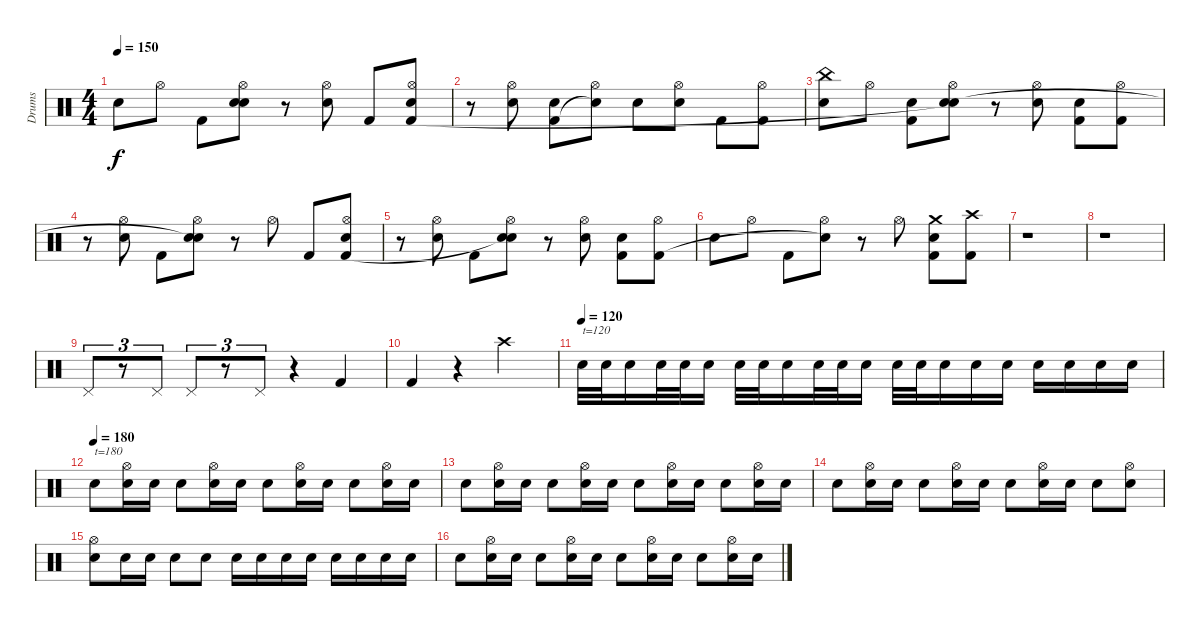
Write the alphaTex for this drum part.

\track ("Drums" "Drums") {instrument percussion}
\staff {score}
\articulation defaults
\ts (4 4)
\tempo 150
\clef neutral
\ks c "Snare (hit) 2".8{dy f} "Hi-Hat (open)".8 "Kick (hit) 2".8
("Hi-Hat (open)" "Snare (hit) 2" "Snare (hit)"{t}).8 r.8 ("Hi-Hat (open)" "Snare (hit) 2").8 "Kick (hit) 2".8 ("Hi-Hat (open)" "Snare (hit) 2" "Kick (hit) 2").8 |
r.8 ("Hi-Hat (open)" "Snare (hit) 2").8 ("Snare (hit) 2" "Kick (hit) 2").8 ("Hi-Hat (open)" "Snare (hit)"{t}).8 "Snare (hit) 2".8 ("Hi-Hat (open)" "Snare (hit) 2").8 "Kick (hit) 2".8 ("Hi-Hat (open)" "Kick (hit) 2").8 |
("China (hit)" "Snare (hit) 2").8 "Hi-Hat (open)".8 ("Snare (hit) 2" "Kick (hit) 2").8 ("Hi-Hat (open)" "Snare (hit) 2" "Snare (hit)"{t}).8 r.8 ("Hi-Hat (open)" "Snare (hit) 2").8 ("Snare (hit) 2" "Kick (hit) 2").8 ("Hi-Hat (open)" "Kick (hit) 2").8 |
r.8 ("Hi-Hat (open)" "Snare (hit) 2").8 "Kick (hit) 2".8 ("Hi-Hat (open)" "Snare (hit) 2" "Snare (hit)"{t}).8 r.8 "Hi-Hat (open)".8 "Kick (hit) 2".8 ("Hi-Hat (open)" "Snare (hit) 2" "Kick (hit) 2").8 |
r.8 ("Hi-Hat (open)" "Snare (hit) 2").8 "Kick (hit) 2".8 ("Hi-Hat (open)" "Snare (hit) 2" "Snare (hit)"{t}).8 r.8 ("Hi-Hat (open)" "Snare (hit) 2").8 ("Snare (hit) 2" "Kick (hit) 2").8 ("Hi-Hat (open)" "Kick (hit) 2").8 |
"Snare (hit) 2".8 "Hi-Hat (open)".8 "Kick (hit) 2".8 ("Hi-Hat (open)" "Snare (hit)"{t}).8 r.8 "Hi-Hat (open)".8 ("Crash medium (hit)" "Snare (hit) 2" "Kick (hit) 2").8 ("Crash high (hit)" "Kick (hit) 2").8 |
r.1 |
r.1 |
"Pedal Hi-Hat (hit)".8{tu (3 2)} r.8{tu (3 2)} "Pedal Hi-Hat (hit)".8{tu (3 2)} "Pedal Hi-Hat (hit)".8{tu (3 2)} r.8{tu (3 2)} "Pedal Hi-Hat (hit)".8{tu (3 2)} r.4 "Kick (hit) 2".4 |
"Kick (hit) 2".4 r.4 "Crash high (hit)".2 |
\tempo (120)
"Snare (hit) 2".32{txt "t=120"} "Snare (hit) 2".32 "Snare (hit) 2".16 "Snare (hit) 2".32 "Snare (hit) 2".32 "Snare (hit) 2".16 "Snare (hit) 2".32 "Snare (hit) 2".32 "Snare (hit) 2".16 "Snare (hit) 2".32 "Snare (hit) 2".32 "Snare (hit) 2".16 "Snare (hit) 2".32 "Snare (hit) 2".32 "Snare (hit) 2".16 "Electric Snare (hit)".16 "Electric Snare (hit)".16 "Electric Snare (hit)".16 "Electric Snare (hit)".16 "Electric Snare (hit)".16 "Electric Snare (hit)".16 |
\tempo (180)
"Snare (hit) 2".8{txt "t=180"} ("Hi-Hat (open)" "Snare (hit) 2").16 "Snare (hit) 2".16 "Snare (hit) 2".8 ("Hi-Hat (open)" "Snare (hit) 2").16 "Snare (hit) 2".16 "Snare (hit) 2".8 ("Hi-Hat (open)" "Snare (hit) 2").16 "Snare (hit) 2".16 "Snare (hit) 2".8 ("Hi-Hat (open)" "Snare (hit) 2").16 "Snare (hit) 2".16 |
"Snare (hit) 2".8 ("Hi-Hat (open)" "Snare (hit) 2").16 "Snare (hit) 2".16 "Snare (hit) 2".8 ("Hi-Hat (open)" "Snare (hit) 2").16 "Snare (hit) 2".16 "Snare (hit) 2".8 ("Hi-Hat (open)" "Snare (hit) 2").16 "Snare (hit) 2".16 "Snare (hit) 2".8 ("Hi-Hat (open)" "Snare (hit) 2").16 "Snare (hit) 2".16 |
"Snare (hit) 2".8 ("Hi-Hat (open)" "Snare (hit) 2").16 "Snare (hit) 2".16 "Snare (hit) 2".8 ("Hi-Hat (open)" "Snare (hit) 2").16 "Snare (hit) 2".16 "Snare (hit) 2".8 ("Hi-Hat (open)" "Snare (hit) 2").16 "Snare (hit) 2".16 "Snare (hit) 2".8 ("Hi-Hat (open)" "Snare (hit) 2").8 |
("Hi-Hat (open)" "Snare (hit) 2").8 "Snare (hit) 2".16 "Snare (hit) 2".16 "Snare (hit) 2".8 "Snare (hit) 2".8 "Snare (hit) 2".16 "Snare (hit) 2".16 "Snare (hit) 2".16 "Snare (hit) 2".16 "Snare (hit) 2".16 "Snare (hit) 2".16 "Electric Snare (hit)".16 "Electric Snare (hit)".16 |
"Snare (hit) 2".8 ("Hi-Hat (open)" "Snare (hit) 2").16 "Snare (hit) 2".16 "Snare (hit) 2".8 ("Hi-Hat (open)" "Snare (hit) 2").16 "Snare (hit) 2".16 "Snare (hit) 2".8 ("Hi-Hat (open)" "Snare (hit) 2").16 "Snare (hit) 2".16 "Snare (hit) 2".8 ("Hi-Hat (open)" "Snare (hit) 2").16 "Snare (hit) 2".16
